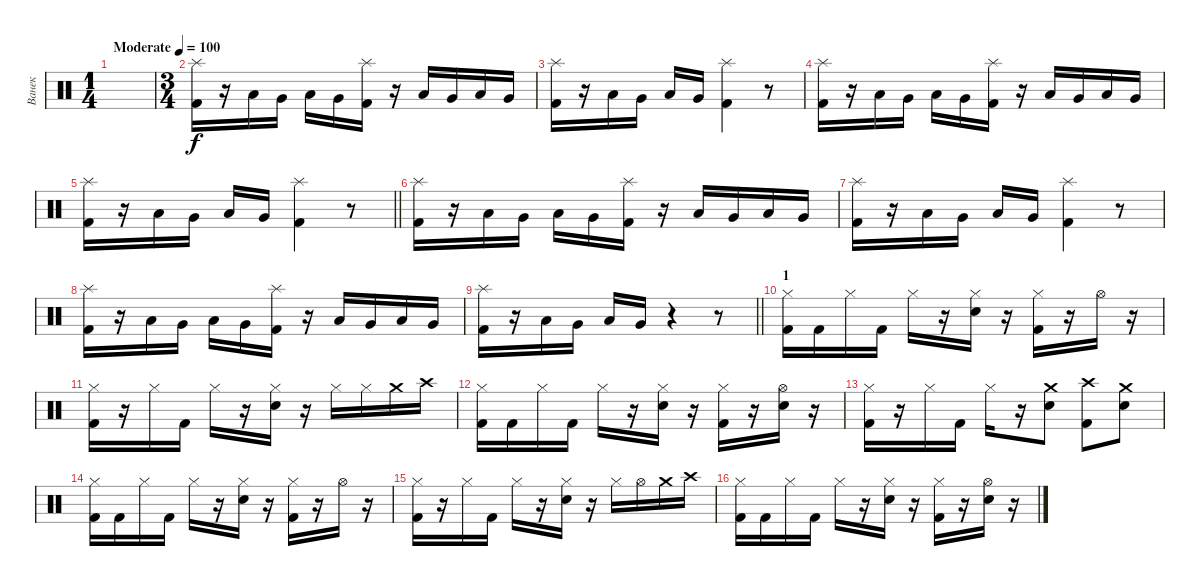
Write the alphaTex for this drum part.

\track ("Ванек" "Ванек") {instrument percussion}
\staff {score}
\articulation defaults
\ts (1 4)
\tempo (100 "Moderate")
\clef neutral
\ks c
|
\ts (3 4)
("Splash (hit)" "Kick (hit) 2").16 r.16 "Low Tom (hit)".16 "Very Low Tom (hit)".16 "Low Floor Tom (hit)".16 "Very Low Tom (hit)".16 ("Splash (hit)" "Kick (hit) 2").16 r.16 "Low Tom (hit)".16 "Very Low Tom (hit)".16 "Low Floor Tom (hit)".16 "Very Low Tom (hit)".16 |
("Splash (hit)" "Kick (hit) 2").16 r.16 "Low Tom (hit)".16 "Very Low Tom (hit)".16 "Low Floor Tom (hit)".16 "Very Low Tom (hit)".16 ("Splash (hit)" "Kick (hit) 2").4 r.8 |
("Splash (hit)" "Kick (hit) 2").16 r.16 "Low Tom (hit)".16 "Very Low Tom (hit)".16 "Low Floor Tom (hit)".16 "Very Low Tom (hit)".16 ("Splash (hit)" "Kick (hit) 2").16 r.16 "Low Tom (hit)".16 "Very Low Tom (hit)".16 "Low Floor Tom (hit)".16 "Very Low Tom (hit)".16 |
\barLineRight lightlight
("Splash (hit)" "Kick (hit) 2").16 r.16 "Low Tom (hit)".16 "Very Low Tom (hit)".16 "Low Floor Tom (hit)".16 "Very Low Tom (hit)".16 ("Splash (hit)" "Kick (hit) 2").4 r.8 |
("Splash (hit)" "Kick (hit) 2").16 r.16 "Low Tom (hit)".16 "Very Low Tom (hit)".16 "Low Floor Tom (hit)".16 "Very Low Tom (hit)".16 ("Splash (hit)" "Kick (hit) 2").16 r.16 "Low Tom (hit)".16 "Very Low Tom (hit)".16 "Low Floor Tom (hit)".16 "Very Low Tom (hit)".16 |
("Splash (hit)" "Kick (hit) 2").16 r.16 "Low Tom (hit)".16 "Very Low Tom (hit)".16 "Low Floor Tom (hit)".16 "Very Low Tom (hit)".16 ("Splash (hit)" "Kick (hit) 2").4 r.8 |
("Splash (hit)" "Kick (hit) 2").16 r.16 "Low Tom (hit)".16 "Very Low Tom (hit)".16 "Low Floor Tom (hit)".16 "Very Low Tom (hit)".16 ("Splash (hit)" "Kick (hit) 2").16 r.16 "Low Tom (hit)".16 "Very Low Tom (hit)".16 "Low Floor Tom (hit)".16 "Very Low Tom (hit)".16 |
\barLineRight lightlight
("Splash (hit)" "Kick (hit) 2").16 r.16 "Low Tom (hit)".16 "Very Low Tom (hit)".16 "Low Floor Tom (hit)".16 "Very Low Tom (hit)".16 r.4 r.8 |
\section ("" "1")
("Hi-Hat (closed)" "Kick (hit) 2").16 "Kick (hit) 2".16 "Hi-Hat (closed)".16 "Kick (hit) 2".16 "Hi-Hat (closed)".16 r.16 ("Hi-Hat (closed)" "Snare (hit) 2").16 r.16 ("Hi-Hat (closed)" "Kick (hit) 2").16 r.16 "Hi-Hat (open)".16 r.16 |
("Hi-Hat (closed)" "Kick (hit) 2").16 r.16 "Hi-Hat (closed)".16 "Kick (hit) 2".16 "Hi-Hat (closed)".16 r.16 ("Hi-Hat (closed)" "Snare (hit) 2").16 r.16 "Hi-Hat (closed)".16 "Hi-Hat (closed)".16 "Crash medium (hit)".16 "Crash high (hit)".16 |
("Hi-Hat (closed)" "Kick (hit) 2").16 "Kick (hit) 2".16 "Hi-Hat (closed)".16 "Kick (hit) 2".16 "Hi-Hat (closed)".16 r.16 ("Hi-Hat (closed)" "Snare (hit) 2").16 r.16 ("Hi-Hat (closed)" "Kick (hit) 2").16 r.16 ("Hi-Hat (open)" "Snare (hit) 2").16 r.16 |
("Hi-Hat (closed)" "Kick (hit) 2").16 r.16 "Hi-Hat (closed)".16 "Kick (hit) 2".16 "Hi-Hat (closed)".16 r.16 ("Crash medium (hit)" "Snare (hit) 2").8 ("Crash high (hit)" "Kick (hit) 2").8 ("Crash medium (hit)" "Snare (hit) 2").8 |
("Hi-Hat (closed)" "Kick (hit) 2").16 "Kick (hit) 2".16 "Hi-Hat (closed)".16 "Kick (hit) 2".16 "Hi-Hat (closed)".16 r.16 ("Hi-Hat (closed)" "Snare (hit) 2").16 r.16 ("Hi-Hat (closed)" "Kick (hit) 2").16 r.16 "Hi-Hat (open)".16 r.16 |
("Hi-Hat (closed)" "Kick (hit) 2").16 r.16 "Hi-Hat (closed)".16 "Kick (hit) 2".16 "Hi-Hat (closed)".16 r.16 ("Hi-Hat (closed)" "Snare (hit) 2").16 r.16 "Hi-Hat (closed)".16 "Hi-Hat (open)".16 "Crash medium (hit)".16 "Crash high (hit)".16 |
("Hi-Hat (closed)" "Kick (hit) 2").16 "Kick (hit) 2".16 "Hi-Hat (closed)".16 "Kick (hit) 2".16 "Hi-Hat (closed)".16 r.16 ("Hi-Hat (closed)" "Snare (hit) 2").16 r.16 ("Hi-Hat (closed)" "Kick (hit) 2").16 r.16 ("Hi-Hat (open)" "Snare (hit) 2").16 r.16
